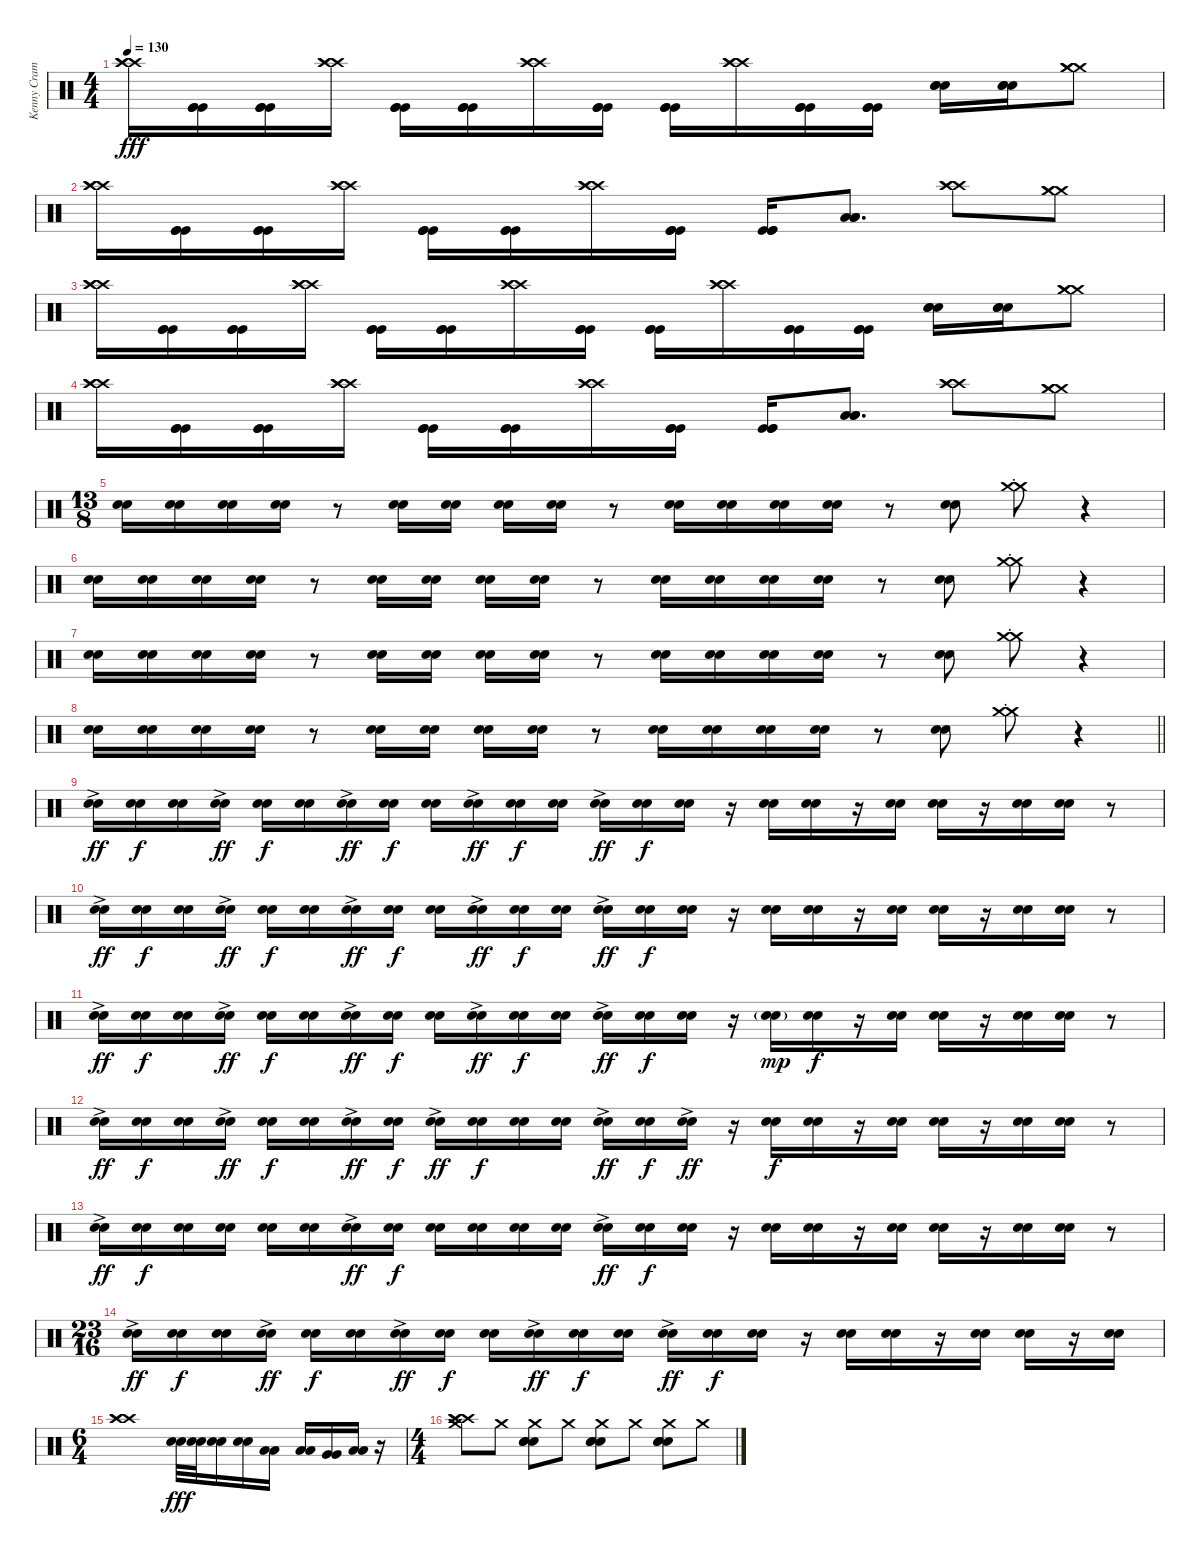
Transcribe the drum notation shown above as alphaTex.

\track ("Kenny Cramme - Drums" "Kenny Cram") {instrument percussion}
\staff {score}
\articulation defaults
\ts (4 4)
\tempo 130
\clef neutral
\ks c
("Crash high (hit)" "Crash high (hit)" "Crash high (hit)").16{dy fff} ("Kick (hit)" "Kick (hit)" "Kick (hit)").16 ("Kick (hit)" "Kick (hit)" "Kick (hit)").16 ("Crash high (hit)" "Crash high (hit)" "Crash high (hit)").16 ("Kick (hit)" "Kick (hit)" "Kick (hit)").16 ("Kick (hit)" "Kick (hit)" "Kick (hit)").16 ("Crash high (hit)" "Crash high (hit)" "Crash high (hit)").16 ("Kick (hit)" "Kick (hit)" "Kick (hit)").16 ("Kick (hit)" "Kick (hit)" "Kick (hit)").16 ("Crash high (hit)" "Crash high (hit)" "Crash high (hit)").16 ("Kick (hit)" "Kick (hit)" "Kick (hit)").16 ("Kick (hit)" "Kick (hit)" "Kick (hit)").16 ("Snare (hit) 2" "Snare (hit) 2" "Snare (hit) 2").16 ("Snare (hit) 2" "Snare (hit) 2" "Snare (hit) 2").16 ("Crash medium (hit)" "Crash medium (hit)" "Crash medium (hit)").8 |
("Crash high (hit)" "Crash high (hit)" "Crash high (hit)").16 ("Kick (hit)" "Kick (hit)" "Kick (hit)").16 ("Kick (hit)" "Kick (hit)" "Kick (hit)").16 ("Crash high (hit)" "Crash high (hit)" "Crash high (hit)").16 ("Kick (hit)" "Kick (hit)" "Kick (hit)").16 ("Kick (hit)" "Kick (hit)" "Kick (hit)").16 ("Crash high (hit)" "Crash high (hit)" "Crash high (hit)").16 ("Kick (hit)" "Kick (hit)" "Kick (hit)").16 ("Kick (hit)" "Kick (hit)" "Kick (hit)").16 ("Low Floor Tom (hit)" "Low Floor Tom (hit)" "Low Floor Tom (hit)").8{d} ("Crash high (hit)" "Crash high (hit)" "Crash high (hit)").8 ("Crash medium (hit)" "Crash medium (hit)" "Crash medium (hit)").8 |
("Crash high (hit)" "Crash high (hit)" "Crash high (hit)").16 ("Kick (hit)" "Kick (hit)" "Kick (hit)").16 ("Kick (hit)" "Kick (hit)" "Kick (hit)").16 ("Crash high (hit)" "Crash high (hit)" "Crash high (hit)").16 ("Kick (hit)" "Kick (hit)" "Kick (hit)").16 ("Kick (hit)" "Kick (hit)" "Kick (hit)").16 ("Crash high (hit)" "Crash high (hit)" "Crash high (hit)").16 ("Kick (hit)" "Kick (hit)" "Kick (hit)").16 ("Kick (hit)" "Kick (hit)" "Kick (hit)").16 ("Crash high (hit)" "Crash high (hit)" "Crash high (hit)").16 ("Kick (hit)" "Kick (hit)" "Kick (hit)").16 ("Kick (hit)" "Kick (hit)" "Kick (hit)").16 ("Snare (hit) 2" "Snare (hit) 2" "Snare (hit) 2").16 ("Snare (hit) 2" "Snare (hit) 2" "Snare (hit) 2").16 ("Crash medium (hit)" "Crash medium (hit)" "Crash medium (hit)").8 |
("Crash high (hit)" "Crash high (hit)" "Crash high (hit)").16 ("Kick (hit)" "Kick (hit)" "Kick (hit)").16 ("Kick (hit)" "Kick (hit)" "Kick (hit)").16 ("Crash high (hit)" "Crash high (hit)" "Crash high (hit)").16 ("Kick (hit)" "Kick (hit)" "Kick (hit)").16 ("Kick (hit)" "Kick (hit)" "Kick (hit)").16 ("Crash high (hit)" "Crash high (hit)" "Crash high (hit)").16 ("Kick (hit)" "Kick (hit)" "Kick (hit)").16 ("Kick (hit)" "Kick (hit)" "Kick (hit)").16 ("Low Floor Tom (hit)" "Low Floor Tom (hit)" "Low Floor Tom (hit)").8{d} ("Crash high (hit)" "Crash high (hit)" "Crash high (hit)").8 ("Crash medium (hit)" "Crash medium (hit)" "Crash medium (hit)").8 |
\ts (13 8)
("Snare (hit) 2" "Snare (hit) 2").16 ("Snare (hit) 2" "Snare (hit) 2").16 ("Snare (hit) 2" "Snare (hit) 2").16 ("Snare (hit) 2" "Snare (hit) 2").16 r.8 ("Snare (hit) 2" "Snare (hit) 2").16 ("Snare (hit) 2" "Snare (hit) 2").16 ("Snare (hit) 2" "Snare (hit) 2").16 ("Snare (hit) 2" "Snare (hit) 2").16 r.8 ("Snare (hit) 2" "Snare (hit) 2").16 ("Snare (hit) 2" "Snare (hit) 2").16 ("Snare (hit) 2" "Snare (hit) 2").16 ("Snare (hit) 2" "Snare (hit) 2").16 r.8 ("Snare (hit) 2" "Snare (hit) 2").8 ("Crash medium (hit)"{st} "Crash medium (hit)"{st}).8 r.4 |
("Snare (hit) 2" "Snare (hit) 2").16 ("Snare (hit) 2" "Snare (hit) 2").16 ("Snare (hit) 2" "Snare (hit) 2").16 ("Snare (hit) 2" "Snare (hit) 2").16 r.8 ("Snare (hit) 2" "Snare (hit) 2").16 ("Snare (hit) 2" "Snare (hit) 2").16 ("Snare (hit) 2" "Snare (hit) 2").16 ("Snare (hit) 2" "Snare (hit) 2").16 r.8 ("Snare (hit) 2" "Snare (hit) 2").16 ("Snare (hit) 2" "Snare (hit) 2").16 ("Snare (hit) 2" "Snare (hit) 2").16 ("Snare (hit) 2" "Snare (hit) 2").16 r.8 ("Snare (hit) 2" "Snare (hit) 2").8 ("Crash medium (hit)"{st} "Crash medium (hit)"{st}).8 r.4 |
("Snare (hit) 2" "Snare (hit) 2").16 ("Snare (hit) 2" "Snare (hit) 2").16 ("Snare (hit) 2" "Snare (hit) 2").16 ("Snare (hit) 2" "Snare (hit) 2").16 r.8 ("Snare (hit) 2" "Snare (hit) 2").16 ("Snare (hit) 2" "Snare (hit) 2").16 ("Snare (hit) 2" "Snare (hit) 2").16 ("Snare (hit) 2" "Snare (hit) 2").16 r.8 ("Snare (hit) 2" "Snare (hit) 2").16 ("Snare (hit) 2" "Snare (hit) 2").16 ("Snare (hit) 2" "Snare (hit) 2").16 ("Snare (hit) 2" "Snare (hit) 2").16 r.8 ("Snare (hit) 2" "Snare (hit) 2").8 ("Crash medium (hit)"{st} "Crash medium (hit)"{st}).8 r.4 |
\barLineRight lightlight
("Snare (hit) 2" "Snare (hit) 2").16 ("Snare (hit) 2" "Snare (hit) 2").16 ("Snare (hit) 2" "Snare (hit) 2").16 ("Snare (hit) 2" "Snare (hit) 2").16 r.8 ("Snare (hit) 2" "Snare (hit) 2").16 ("Snare (hit) 2" "Snare (hit) 2").16 ("Snare (hit) 2" "Snare (hit) 2").16 ("Snare (hit) 2" "Snare (hit) 2").16 r.8 ("Snare (hit) 2" "Snare (hit) 2").16 ("Snare (hit) 2" "Snare (hit) 2").16 ("Snare (hit) 2" "Snare (hit) 2").16 ("Snare (hit) 2" "Snare (hit) 2").16 r.8 ("Snare (hit) 2" "Snare (hit) 2").8 ("Crash medium (hit)"{st} "Crash medium (hit)"{st}).8 r.4 |
("Snare (hit) 2"{ac} "Snare (hit) 2"{ac}).16{dy ff} ("Snare (hit) 2" "Snare (hit) 2").16{dy f} ("Snare (hit) 2" "Snare (hit) 2").16 ("Snare (hit) 2"{ac} "Snare (hit) 2"{ac}).16{dy ff} ("Snare (hit) 2" "Snare (hit) 2").16{dy f} ("Snare (hit) 2" "Snare (hit) 2").16 ("Snare (hit) 2"{ac} "Snare (hit) 2"{ac}).16{dy ff} ("Snare (hit) 2" "Snare (hit) 2").16{dy f} ("Snare (hit) 2" "Snare (hit) 2").16 ("Snare (hit) 2"{ac} "Snare (hit) 2"{ac}).16{dy ff} ("Snare (hit) 2" "Snare (hit) 2").16{dy f} ("Snare (hit) 2" "Snare (hit) 2").16 ("Snare (hit) 2"{ac} "Snare (hit) 2"{ac}).16{dy ff} ("Snare (hit) 2" "Snare (hit) 2").16{dy f} ("Snare (hit) 2" "Snare (hit) 2").16 r.16 ("Snare (hit) 2" "Snare (hit) 2").16 ("Snare (hit) 2" "Snare (hit) 2").16 r.16 ("Snare (hit) 2" "Snare (hit) 2").16 ("Snare (hit) 2" "Snare (hit) 2").16 r.16 ("Snare (hit) 2" "Snare (hit) 2").16 ("Snare (hit) 2" "Snare (hit) 2").16 r.8 |
("Snare (hit) 2"{ac} "Snare (hit) 2"{ac}).16{dy ff} ("Snare (hit) 2" "Snare (hit) 2").16{dy f} ("Snare (hit) 2" "Snare (hit) 2").16 ("Snare (hit) 2"{ac} "Snare (hit) 2"{ac}).16{dy ff} ("Snare (hit) 2" "Snare (hit) 2").16{dy f} ("Snare (hit) 2" "Snare (hit) 2").16 ("Snare (hit) 2"{ac} "Snare (hit) 2"{ac}).16{dy ff} ("Snare (hit) 2" "Snare (hit) 2").16{dy f} ("Snare (hit) 2" "Snare (hit) 2").16 ("Snare (hit) 2"{ac} "Snare (hit) 2"{ac}).16{dy ff} ("Snare (hit) 2" "Snare (hit) 2").16{dy f} ("Snare (hit) 2" "Snare (hit) 2").16 ("Snare (hit) 2"{ac} "Snare (hit) 2"{ac}).16{dy ff} ("Snare (hit) 2" "Snare (hit) 2").16{dy f} ("Snare (hit) 2" "Snare (hit) 2").16 r.16 ("Snare (hit) 2" "Snare (hit) 2").16 ("Snare (hit) 2" "Snare (hit) 2").16 r.16 ("Snare (hit) 2" "Snare (hit) 2").16 ("Snare (hit) 2" "Snare (hit) 2").16 r.16 ("Snare (hit) 2" "Snare (hit) 2").16 ("Snare (hit) 2" "Snare (hit) 2").16 r.8 |
("Snare (hit) 2"{ac} "Snare (hit) 2"{ac}).16{dy ff} ("Snare (hit) 2" "Snare (hit) 2").16{dy f} ("Snare (hit) 2" "Snare (hit) 2").16 ("Snare (hit) 2"{ac} "Snare (hit) 2"{ac}).16{dy ff} ("Snare (hit) 2" "Snare (hit) 2").16{dy f} ("Snare (hit) 2" "Snare (hit) 2").16 ("Snare (hit) 2"{ac} "Snare (hit) 2"{ac}).16{dy ff} ("Snare (hit) 2" "Snare (hit) 2").16{dy f} ("Snare (hit) 2" "Snare (hit) 2").16 ("Snare (hit) 2"{ac} "Snare (hit) 2"{ac}).16{dy ff} ("Snare (hit) 2" "Snare (hit) 2").16{dy f} ("Snare (hit) 2" "Snare (hit) 2").16 ("Snare (hit) 2"{ac} "Snare (hit) 2"{ac}).16{dy ff} ("Snare (hit) 2" "Snare (hit) 2").16{dy f} ("Snare (hit) 2" "Snare (hit) 2").16 r.16 ("Snare (hit) 2"{g} "Snare (hit) 2"{g}).16{dy mp} ("Snare (hit) 2" "Snare (hit) 2").16{dy f} r.16 ("Snare (hit) 2" "Snare (hit) 2").16 ("Snare (hit) 2" "Snare (hit) 2").16 r.16 ("Snare (hit) 2" "Snare (hit) 2").16 ("Snare (hit) 2" "Snare (hit) 2").16 r.8 |
("Snare (hit) 2"{ac} "Snare (hit) 2"{ac}).16{dy ff} ("Snare (hit) 2" "Snare (hit) 2").16{dy f} ("Snare (hit) 2" "Snare (hit) 2").16 ("Snare (hit) 2"{ac} "Snare (hit) 2"{ac}).16{dy ff} ("Snare (hit) 2" "Snare (hit) 2").16{dy f} ("Snare (hit) 2" "Snare (hit) 2").16 ("Snare (hit) 2"{ac} "Snare (hit) 2"{ac}).16{dy ff} ("Snare (hit) 2" "Snare (hit) 2").16{dy f} ("Snare (hit) 2"{ac} "Snare (hit) 2"{ac}).16{dy ff} ("Snare (hit) 2" "Snare (hit) 2").16{dy f} ("Snare (hit) 2" "Snare (hit) 2").16 ("Snare (hit) 2" "Snare (hit) 2").16 ("Snare (hit) 2"{ac} "Snare (hit) 2"{ac}).16{dy ff} ("Snare (hit) 2" "Snare (hit) 2").16{dy f} ("Snare (hit) 2"{ac} "Snare (hit) 2"{ac}).16{dy ff} r.16 ("Snare (hit) 2" "Snare (hit) 2").16{dy f} ("Snare (hit) 2" "Snare (hit) 2").16 r.16 ("Snare (hit) 2" "Snare (hit) 2").16 ("Snare (hit) 2" "Snare (hit) 2").16 r.16 ("Snare (hit) 2" "Snare (hit) 2").16 ("Snare (hit) 2" "Snare (hit) 2").16 r.8 |
("Snare (hit) 2"{ac} "Snare (hit) 2"{ac}).16{dy ff} ("Snare (hit) 2" "Snare (hit) 2").16{dy f} ("Snare (hit) 2" "Snare (hit) 2").16 ("Snare (hit) 2" "Snare (hit) 2").16 ("Snare (hit) 2" "Snare (hit) 2").16 ("Snare (hit) 2" "Snare (hit) 2").16 ("Snare (hit) 2"{ac} "Snare (hit) 2"{ac}).16{dy ff} ("Snare (hit) 2" "Snare (hit) 2").16{dy f} ("Snare (hit) 2" "Snare (hit) 2").16 ("Snare (hit) 2" "Snare (hit) 2").16 ("Snare (hit) 2" "Snare (hit) 2").16 ("Snare (hit) 2" "Snare (hit) 2").16 ("Snare (hit) 2"{ac} "Snare (hit) 2"{ac}).16{dy ff} ("Snare (hit) 2" "Snare (hit) 2").16{dy f} ("Snare (hit) 2" "Snare (hit) 2").16 r.16 ("Snare (hit) 2" "Snare (hit) 2").16 ("Snare (hit) 2" "Snare (hit) 2").16 r.16 ("Snare (hit) 2" "Snare (hit) 2").16 ("Snare (hit) 2" "Snare (hit) 2").16 r.16 ("Snare (hit) 2" "Snare (hit) 2").16 ("Snare (hit) 2" "Snare (hit) 2").16 r.8 |
\ts (23 16)
("Snare (hit) 2"{ac} "Snare (hit) 2"{ac}).16{dy ff} ("Snare (hit) 2" "Snare (hit) 2").16{dy f} ("Snare (hit) 2" "Snare (hit) 2").16 ("Snare (hit) 2"{ac} "Snare (hit) 2"{ac}).16{dy ff} ("Snare (hit) 2" "Snare (hit) 2").16{dy f} ("Snare (hit) 2" "Snare (hit) 2").16 ("Snare (hit) 2"{ac} "Snare (hit) 2"{ac}).16{dy ff} ("Snare (hit) 2" "Snare (hit) 2").16{dy f} ("Snare (hit) 2" "Snare (hit) 2").16 ("Snare (hit) 2"{ac} "Snare (hit) 2"{ac}).16{dy ff} ("Snare (hit) 2" "Snare (hit) 2").16{dy f} ("Snare (hit) 2" "Snare (hit) 2").16 ("Snare (hit) 2"{ac} "Snare (hit) 2"{ac}).16{dy ff} ("Snare (hit) 2" "Snare (hit) 2").16{dy f} ("Snare (hit) 2" "Snare (hit) 2").16 r.16 ("Snare (hit) 2" "Snare (hit) 2").16 ("Snare (hit) 2" "Snare (hit) 2").16 r.16 ("Snare (hit) 2" "Snare (hit) 2").16 ("Snare (hit) 2" "Snare (hit) 2").16 r.16 ("Snare (hit) 2" "Snare (hit) 2").16 |
\ts (6 4)
("Crash high (hit)" "Crash high (hit)" "Crash high (hit)").1 ("Snare (hit) 2" "Snare (hit) 2").32{dy fff} ("Snare (hit) 2" "Snare (hit) 2").32 ("Snare (hit) 2" "Snare (hit) 2").16 ("Snare (hit) 2" "Snare (hit) 2").16 ("Low Tom (hit)" "Low Tom (hit)").16 ("Low Tom (hit)" "Low Tom (hit)").16 ("Very Low Tom (hit)" "Very Low Tom (hit)").16 ("Low Floor Tom (hit)" "Low Floor Tom (hit)").16 r.16 |
\ts (4 4)
("Crash medium (hit)" "Crash high (hit)" "Crash high (hit)" "Crash high (hit)").8 "Crash medium (hit)".8 ("Crash medium (hit)" "Snare (hit) 2" "Snare (hit) 2" "Snare (hit) 2").8 "Crash medium (hit)".8 ("Crash medium (hit)" "Snare (hit) 2" "Snare (hit) 2" "Snare (hit) 2").8 "Crash medium (hit)".8 ("Crash medium (hit)" "Snare (hit) 2" "Snare (hit) 2" "Snare (hit) 2").8 "Crash medium (hit)".8
